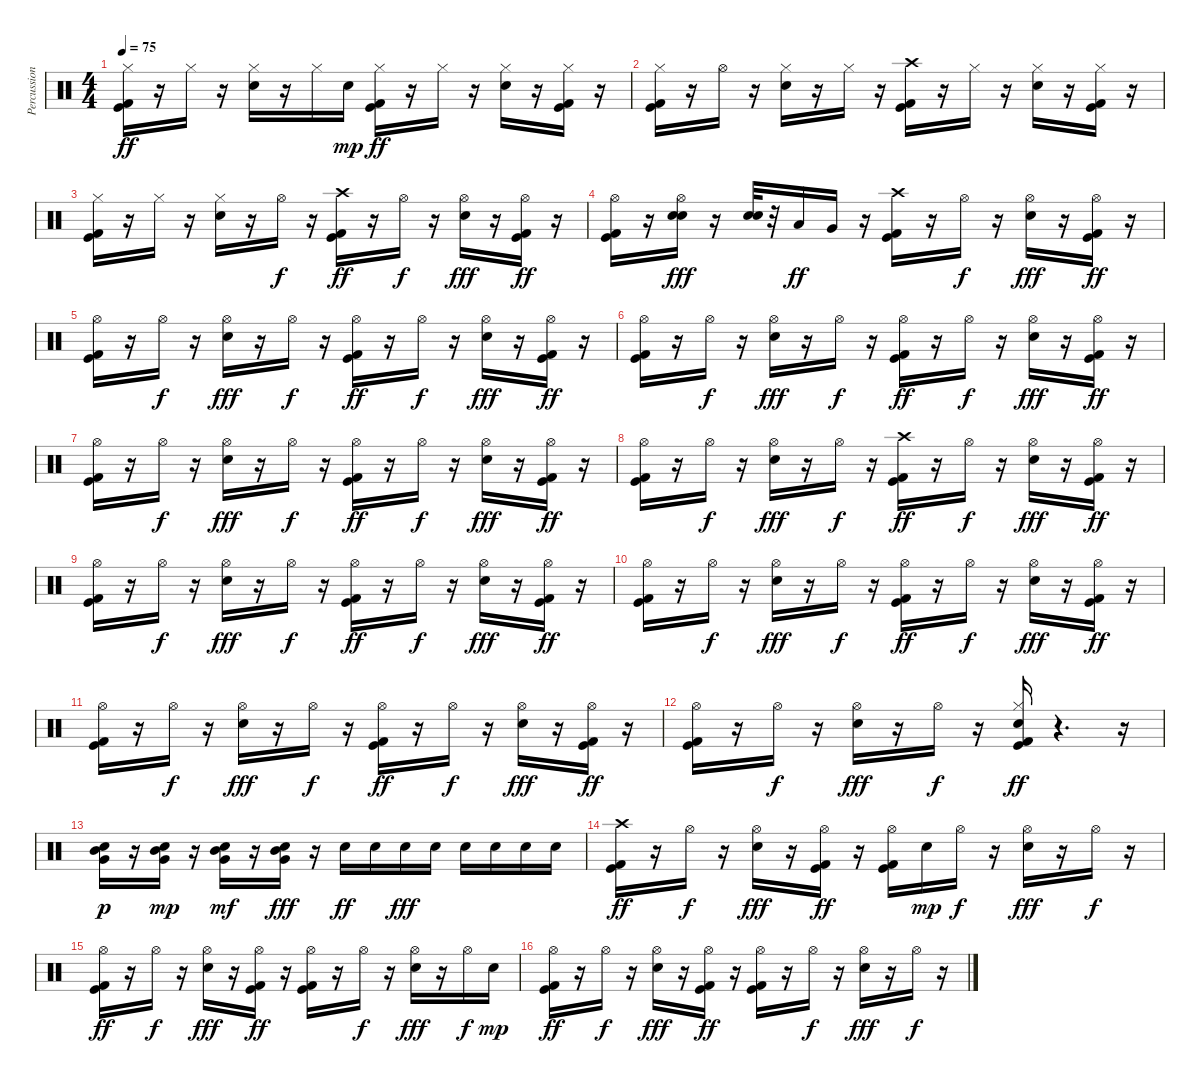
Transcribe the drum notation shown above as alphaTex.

\track ("Percussion" "Percussion") {instrument percussion}
\staff {score}
\articulation defaults
\ts (4 4)
\tempo 75
\clef neutral
\ks c
("Kick (hit)" "Kick (hit) 2" "Hi-Hat (closed)").16{dy ff} r.16 "Hi-Hat (closed)".16 r.16 ("Electric Snare (hit)" "Hi-Hat (closed)").16 r.16 "Hi-Hat (closed)".16 "Electric Snare (hit)".16{dy mp} ("Kick (hit)" "Kick (hit) 2" "Hi-Hat (closed)").16{dy ff} r.16 "Hi-Hat (closed)".16 r.16 ("Electric Snare (hit)" "Hi-Hat (closed)").16 r.16 ("Kick (hit)" "Kick (hit) 2" "Hi-Hat (closed)").16 r.16 |
("Kick (hit)" "Kick (hit) 2" "Hi-Hat (closed)").16 r.16 "Hi-Hat (open)".16 r.16 ("Electric Snare (hit)" "Hi-Hat (closed)").16 r.16 "Hi-Hat (closed)".16 r.16 ("Crash high (hit)" "Kick (hit)" "Kick (hit) 2").16 r.16 "Hi-Hat (closed)".16 r.16 ("Electric Snare (hit)" "Hi-Hat (closed)").16 r.16 ("Kick (hit)" "Kick (hit) 2" "Hi-Hat (closed)").16 r.16 |
("Kick (hit)" "Kick (hit) 2" "Hi-Hat (closed)").16 r.16 "Hi-Hat (closed)".16 r.16 ("Electric Snare (hit)" "Hi-Hat (closed)").16 r.16 "Hi-Hat (open)".16{dy f} r.16 ("Kick (hit)" "Kick (hit) 2" "Crash high (hit)").16{dy ff} r.16 "Hi-Hat (open)".16{dy f} r.16 ("Electric Snare (hit)" "Hi-Hat (open)").16{dy fff} r.16 ("Kick (hit)" "Kick (hit) 2" "Hi-Hat (open)").16{dy ff} r.16 |
("Kick (hit)" "Kick (hit) 2" "Hi-Hat (open)").16 r.16 ("Hi-Hat (open)" "Electric Snare (hit)" "Electric Snare (hit)").16{dy fff} r.16 ("Electric Snare (hit)" "Electric Snare (hit)").32 r.32 "Low Tom (hit)".16{dy ff} "Very Low Tom (hit)".16 r.16 ("Crash high (hit)" "Kick (hit)" "Kick (hit) 2").16 r.16 "Hi-Hat (open)".16{dy f} r.16 ("Hi-Hat (open)" "Electric Snare (hit)").16{dy fff} r.16 ("Hi-Hat (open)" "Kick (hit)" "Kick (hit) 2").16{dy ff} r.16 |
("Hi-Hat (open)" "Kick (hit)" "Kick (hit) 2").16 r.16 "Hi-Hat (open)".16{dy f} r.16 ("Hi-Hat (open)" "Electric Snare (hit)").16{dy fff} r.16 "Hi-Hat (open)".16{dy f} r.16 ("Hi-Hat (open)" "Kick (hit)" "Kick (hit) 2").16{dy ff} r.16 "Hi-Hat (open)".16{dy f} r.16 ("Hi-Hat (open)" "Electric Snare (hit)").16{dy fff} r.16 ("Hi-Hat (open)" "Kick (hit)" "Kick (hit) 2").16{dy ff} r.16 |
("Hi-Hat (open)" "Kick (hit)" "Kick (hit) 2").16 r.16 "Hi-Hat (open)".16{dy f} r.16 ("Hi-Hat (open)" "Electric Snare (hit)").16{dy fff} r.16 "Hi-Hat (open)".16{dy f} r.16 ("Kick (hit)" "Kick (hit) 2" "Hi-Hat (open)").16{dy ff} r.16 "Hi-Hat (open)".16{dy f} r.16 ("Hi-Hat (open)" "Electric Snare (hit)").16{dy fff} r.16 ("Hi-Hat (open)" "Kick (hit)" "Kick (hit) 2").16{dy ff} r.16 |
("Hi-Hat (open)" "Kick (hit)" "Kick (hit) 2").16 r.16 "Hi-Hat (open)".16{dy f} r.16 ("Hi-Hat (open)" "Electric Snare (hit)").16{dy fff} r.16 "Hi-Hat (open)".16{dy f} r.16 ("Hi-Hat (open)" "Kick (hit)" "Kick (hit) 2").16{dy ff} r.16 "Hi-Hat (open)".16{dy f} r.16 ("Hi-Hat (open)" "Electric Snare (hit)").16{dy fff} r.16 ("Hi-Hat (open)" "Kick (hit)" "Kick (hit) 2").16{dy ff} r.16 |
("Hi-Hat (open)" "Kick (hit)" "Kick (hit) 2").16 r.16 "Hi-Hat (open)".16{dy f} r.16 ("Hi-Hat (open)" "Electric Snare (hit)").16{dy fff} r.16 "Hi-Hat (open)".16{dy f} r.16 ("Crash high (hit)" "Kick (hit)" "Kick (hit) 2").16{dy ff} r.16 "Hi-Hat (open)".16{dy f} r.16 ("Hi-Hat (open)" "Electric Snare (hit)").16{dy fff} r.16 ("Hi-Hat (open)" "Kick (hit)" "Kick (hit) 2").16{dy ff} r.16 |
("Hi-Hat (open)" "Kick (hit)" "Kick (hit) 2").16 r.16 "Hi-Hat (open)".16{dy f} r.16 ("Hi-Hat (open)" "Electric Snare (hit)").16{dy fff} r.16 "Hi-Hat (open)".16{dy f} r.16 ("Hi-Hat (open)" "Kick (hit)" "Kick (hit) 2").16{dy ff} r.16 "Hi-Hat (open)".16{dy f} r.16 ("Hi-Hat (open)" "Electric Snare (hit)").16{dy fff} r.16 ("Hi-Hat (open)" "Kick (hit)" "Kick (hit) 2").16{dy ff} r.16 |
("Hi-Hat (open)" "Kick (hit)" "Kick (hit) 2").16 r.16 "Hi-Hat (open)".16{dy f} r.16 ("Hi-Hat (open)" "Electric Snare (hit)").16{dy fff} r.16 "Hi-Hat (open)".16{dy f} r.16 ("Kick (hit)" "Kick (hit) 2" "Hi-Hat (open)").16{dy ff} r.16 "Hi-Hat (open)".16{dy f} r.16 ("Hi-Hat (open)" "Electric Snare (hit)").16{dy fff} r.16 ("Hi-Hat (open)" "Kick (hit)" "Kick (hit) 2").16{dy ff} r.16 |
("Hi-Hat (open)" "Kick (hit)" "Kick (hit) 2").16 r.16 "Hi-Hat (open)".16{dy f} r.16 ("Hi-Hat (open)" "Electric Snare (hit)").16{dy fff} r.16 "Hi-Hat (open)".16{dy f} r.16 ("Hi-Hat (open)" "Kick (hit)" "Kick (hit) 2").16{dy ff} r.16 "Hi-Hat (open)".16{dy f} r.16 ("Hi-Hat (open)" "Electric Snare (hit)").16{dy fff} r.16 ("Hi-Hat (open)" "Kick (hit)" "Kick (hit) 2").16{dy ff} r.16 |
("Hi-Hat (open)" "Kick (hit)" "Kick (hit) 2").16 r.16 "Hi-Hat (open)".16{dy f} r.16 ("Hi-Hat (open)" "Electric Snare (hit)").16{dy fff} r.16 "Hi-Hat (open)".16{dy f} r.16 ("Electric Snare (hit)" "Hi-Hat (closed)" "Kick (hit)" "Kick (hit) 2").16{dy ff} r.4{d} r.16 |
("Mid Tom (hit)" "Very Low Tom (hit)" "Electric Snare (hit)").16{dy p} r.16 ("Very Low Tom (hit)" "Mid Tom (hit)" "Electric Snare (hit)").16{dy mp} r.16 ("Very Low Tom (hit)" "Mid Tom (hit)" "Electric Snare (hit)").16{dy mf} r.16 ("Very Low Tom (hit)" "Mid Tom (hit)" "Electric Snare (hit)").16{dy fff} r.16 "Electric Snare (hit)".16{dy ff} "Electric Snare (hit)".16 "Electric Snare (hit)".16{dy fff} "Electric Snare (hit)".16 "Electric Snare (hit)".16 "Electric Snare (hit)".16 "Electric Snare (hit)".16 "Electric Snare (hit)".16 |
("Crash high (hit)" "Kick (hit)" "Kick (hit) 2").16{dy ff} r.16 "Hi-Hat (open)".16{dy f} r.16 ("Hi-Hat (open)" "Electric Snare (hit)").16{dy fff} r.16 ("Hi-Hat (open)" "Kick (hit)" "Kick (hit) 2").16{dy ff} r.16 ("Hi-Hat (open)" "Kick (hit)" "Kick (hit) 2").16 "Electric Snare (hit)".16{dy mp} "Hi-Hat (open)".16{dy f} r.16 ("Hi-Hat (open)" "Electric Snare (hit)").16{dy fff} r.16 "Hi-Hat (open)".16{dy f} r.16 |
("Hi-Hat (open)" "Kick (hit)" "Kick (hit) 2").16{dy ff} r.16 "Hi-Hat (open)".16{dy f} r.16 ("Hi-Hat (open)" "Electric Snare (hit)").16{dy fff} r.16 ("Hi-Hat (open)" "Kick (hit)" "Kick (hit) 2").16{dy ff} r.16 ("Hi-Hat (open)" "Kick (hit)" "Kick (hit) 2").16 r.16 "Hi-Hat (open)".16{dy f} r.16 ("Hi-Hat (open)" "Electric Snare (hit)").16{dy fff} r.16 "Hi-Hat (open)".16{dy f} "Electric Snare (hit)".16{dy mp} |
("Kick (hit)" "Kick (hit) 2" "Hi-Hat (open)").16{dy ff} r.16 "Hi-Hat (open)".16{dy f} r.16 ("Hi-Hat (open)" "Electric Snare (hit)").16{dy fff} r.16 ("Hi-Hat (open)" "Kick (hit)" "Kick (hit) 2").16{dy ff} r.16 ("Hi-Hat (open)" "Kick (hit)" "Kick (hit) 2").16 r.16 "Hi-Hat (open)".16{dy f} r.16 ("Hi-Hat (open)" "Electric Snare (hit)").16{dy fff} r.16 "Hi-Hat (open)".16{dy f} r.16
